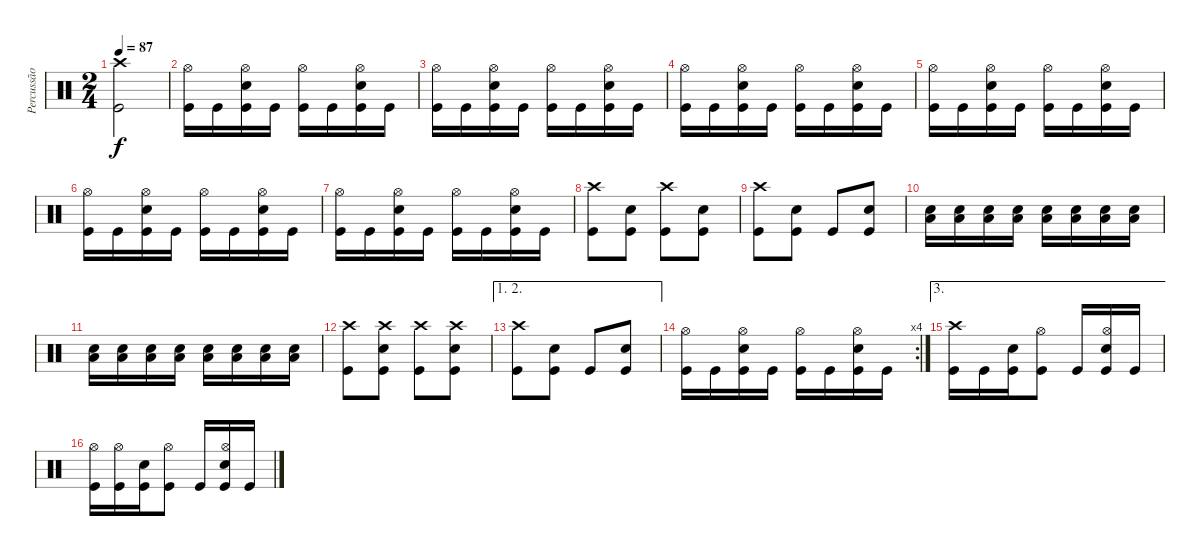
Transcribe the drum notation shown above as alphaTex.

\track ("Percussão" "Percussão") {instrument percussion}
\staff {score}
\articulation defaults
\ts (2 4)
\tempo 87
\clef neutral
\ks c
("Crash high (hit)" "Kick (hit)").2{dy f} |
("Hi-Hat (open)" "Kick (hit)").16 "Kick (hit)".16 ("Hi-Hat (open)" "Snare (hit) 2" "Kick (hit)").16 "Kick (hit)".16 ("Hi-Hat (open)" "Kick (hit)").16 "Kick (hit)".16 ("Hi-Hat (open)" "Snare (hit) 2" "Kick (hit)").16 "Kick (hit)".16 |
("Hi-Hat (open)" "Kick (hit)").16 "Kick (hit)".16 ("Hi-Hat (open)" "Snare (hit) 2" "Kick (hit)").16 "Kick (hit)".16 ("Hi-Hat (open)" "Kick (hit)").16 "Kick (hit)".16 ("Hi-Hat (open)" "Snare (hit) 2" "Kick (hit)").16 "Kick (hit)".16 |
("Hi-Hat (open)" "Kick (hit)").16 "Kick (hit)".16 ("Hi-Hat (open)" "Snare (hit) 2" "Kick (hit)").16 "Kick (hit)".16 ("Hi-Hat (open)" "Kick (hit)").16 "Kick (hit)".16 ("Hi-Hat (open)" "Snare (hit) 2" "Kick (hit)").16 "Kick (hit)".16 |
("Hi-Hat (open)" "Kick (hit)").16 "Kick (hit)".16 ("Hi-Hat (open)" "Snare (hit) 2" "Kick (hit)").16 "Kick (hit)".16 ("Hi-Hat (open)" "Kick (hit)").16 "Kick (hit)".16 ("Hi-Hat (open)" "Snare (hit) 2" "Kick (hit)").16 "Kick (hit)".16 |
("Hi-Hat (open)" "Kick (hit)").16 "Kick (hit)".16 ("Hi-Hat (open)" "Snare (hit) 2" "Kick (hit)").16 "Kick (hit)".16 ("Hi-Hat (open)" "Kick (hit)").16 "Kick (hit)".16 ("Hi-Hat (open)" "Snare (hit) 2" "Kick (hit)").16 "Kick (hit)".16 |
("Hi-Hat (open)" "Kick (hit)").16 "Kick (hit)".16 ("Hi-Hat (open)" "Snare (hit) 2" "Kick (hit)").16 "Kick (hit)".16 ("Hi-Hat (open)" "Kick (hit)").16 "Kick (hit)".16 ("Hi-Hat (open)" "Snare (hit) 2" "Kick (hit)").16 "Kick (hit)".16 |
("Crash high (hit)" "Kick (hit)").8 ("Snare (hit) 2" "Kick (hit)").8 ("Crash high (hit)" "Kick (hit)").8 ("Snare (hit) 2" "Kick (hit)").8 |
("Crash high (hit)" "Kick (hit)").8 ("Snare (hit) 2" "Kick (hit)").8 "Kick (hit)".8 ("Snare (hit) 2" "Kick (hit)").8 |
("Snare (hit) 2" "Low Floor Tom (hit)").16 ("Snare (hit) 2" "Low Floor Tom (hit)").16 ("Snare (hit) 2" "Low Floor Tom (hit)").16 ("Snare (hit) 2" "Low Floor Tom (hit)").16 ("Snare (hit) 2" "Low Floor Tom (hit)").16 ("Snare (hit) 2" "Low Floor Tom (hit)").16 ("Snare (hit) 2" "Low Floor Tom (hit)").16 ("Snare (hit) 2" "Low Floor Tom (hit)").16 |
("Snare (hit) 2" "Low Floor Tom (hit)").16 ("Snare (hit) 2" "Low Floor Tom (hit)").16 ("Snare (hit) 2" "Low Floor Tom (hit)").16 ("Snare (hit) 2" "Low Floor Tom (hit)").16 ("Snare (hit) 2" "Low Floor Tom (hit)").16 ("Snare (hit) 2" "Low Floor Tom (hit)").16 ("Snare (hit) 2" "Low Floor Tom (hit)").16 ("Snare (hit) 2" "Low Floor Tom (hit)").16 |
("Crash high (hit)" "Kick (hit)").8 ("Crash high (hit)" "Snare (hit) 2" "Kick (hit)").8 ("Crash high (hit)" "Kick (hit)").8 ("Crash high (hit)" "Snare (hit) 2" "Kick (hit)").8 |
\ae (1 2)
("Crash high (hit)" "Kick (hit)").8 ("Snare (hit) 2" "Kick (hit)").8 "Kick (hit)".8 ("Snare (hit) 2" "Kick (hit)").8 |
\rc 4
("Hi-Hat (open)" "Kick (hit)").16 "Kick (hit)".16 ("Hi-Hat (open)" "Snare (hit) 2" "Kick (hit)").16 "Kick (hit)".16 ("Hi-Hat (open)" "Kick (hit)").16 "Kick (hit)".16 ("Hi-Hat (open)" "Snare (hit) 2" "Kick (hit)").16 "Kick (hit)".16 |
\ae 3
("Crash high (hit)" "Kick (hit)").16 "Kick (hit)".16 ("Snare (hit) 2" "Kick (hit)").16 ("Hi-Hat (open)" "Kick (hit)").8 "Kick (hit)".16 ("Hi-Hat (open)" "Snare (hit) 2" "Kick (hit)").16 "Kick (hit)".16 |
("Hi-Hat (open)" "Kick (hit)").16 ("Hi-Hat (open)" "Kick (hit)").16 ("Snare (hit) 2" "Kick (hit)").16 ("Hi-Hat (open)" "Kick (hit)").8 "Kick (hit)".16 ("Hi-Hat (open)" "Snare (hit) 2" "Kick (hit)").16 "Kick (hit)".16
